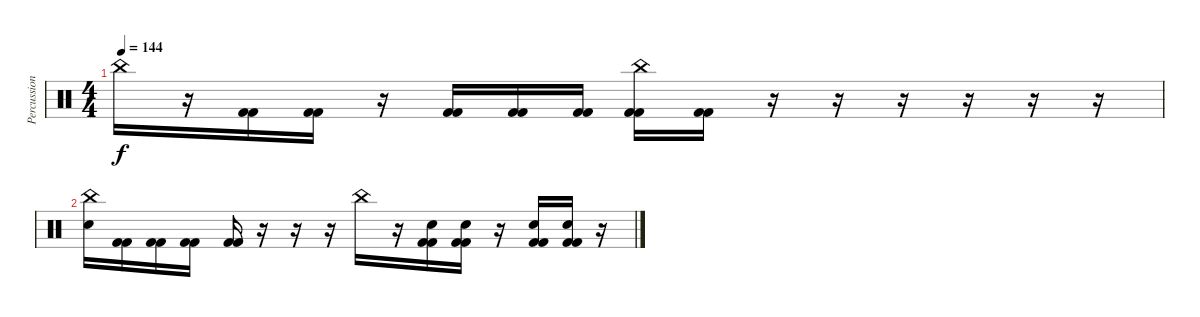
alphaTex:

\track ("Percussion" "Percussion") {instrument percussion}
\staff {score}
\articulation defaults
\ts (4 4)
\tempo 144
\clef neutral
\ks c "China (hit)".16{dy f}
r.16 ("Kick (hit) 2" "Kick (hit) 2").16 ("Kick (hit) 2" "Kick (hit) 2").16 r.16 ("Kick (hit) 2" "Kick (hit) 2").16 ("Kick (hit) 2" "Kick (hit) 2").16 ("Kick (hit) 2" "Kick (hit) 2").16 ("China (hit)" "Kick (hit) 2" "Kick (hit) 2").16 ("Kick (hit) 2" "Kick (hit) 2").16 r.16 r.16 r.16 r.16 r.16 r.16 |
("China (hit)" "Electric Snare (hit)").16 ("Kick (hit) 2" "Kick (hit) 2").16 ("Kick (hit) 2" "Kick (hit) 2").16 ("Kick (hit) 2" "Kick (hit) 2").16 ("Kick (hit) 2" "Kick (hit) 2").16 r.16 r.16 r.16 "China (hit)".16 r.16 ("Electric Snare (hit)" "Kick (hit) 2" "Kick (hit) 2").16 ("Electric Snare (hit)" "Kick (hit) 2" "Kick (hit) 2").16 r.16 ("Electric Snare (hit)" "Kick (hit) 2" "Kick (hit) 2").16 ("Electric Snare (hit)" "Kick (hit) 2" "Kick (hit) 2").16 r.16
